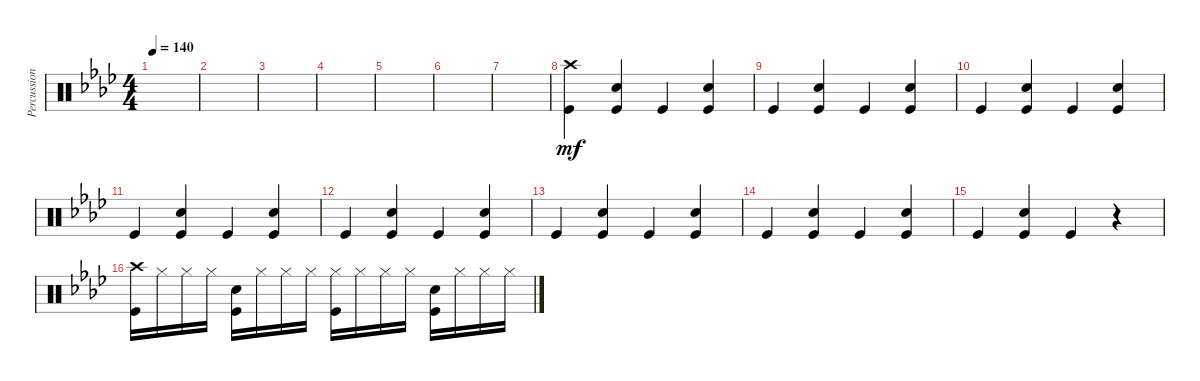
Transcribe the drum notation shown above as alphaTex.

\track ("Percussion" "Percussion") {instrument percussion}
\staff {score}
\articulation defaults
\ts (4 4)
\tempo 140
\clef neutral
\ks ab
|
|
|
|
|
|
|
("Kick (hit)" "Crash high (hit)").4{dy mf} ("Snare (hit) 2" "Kick (hit)").4 "Kick (hit)".4 ("Snare (hit) 2" "Kick (hit)").4 |
"Kick (hit)".4 ("Snare (hit) 2" "Kick (hit)").4 "Kick (hit)".4 ("Snare (hit) 2" "Kick (hit)").4 |
"Kick (hit)".4 ("Snare (hit) 2" "Kick (hit)").4 "Kick (hit)".4 ("Snare (hit) 2" "Kick (hit)").4 |
"Kick (hit)".4 ("Snare (hit) 2" "Kick (hit)").4 "Kick (hit)".4 ("Snare (hit) 2" "Kick (hit)").4 |
"Kick (hit)".4 ("Snare (hit) 2" "Kick (hit)").4 "Kick (hit)".4 ("Snare (hit) 2" "Kick (hit)").4 |
"Kick (hit)".4 ("Snare (hit) 2" "Kick (hit)").4 "Kick (hit)".4 ("Snare (hit) 2" "Kick (hit)").4 |
"Kick (hit)".4 ("Snare (hit) 2" "Kick (hit)").4 "Kick (hit)".4 ("Snare (hit) 2" "Kick (hit)").4 |
"Kick (hit)".4 ("Snare (hit) 2" "Kick (hit)").4 "Kick (hit)".4 r.4 |
("Crash high (hit)" "Kick (hit)").16 "Hi-Hat (closed)".16 "Hi-Hat (closed)".16 "Hi-Hat (closed)".16 ("Snare (hit) 2" "Kick (hit)").16 "Hi-Hat (closed)".16 "Hi-Hat (closed)".16 "Hi-Hat (closed)".16 ("Hi-Hat (closed)" "Kick (hit)").16 "Hi-Hat (closed)".16 "Hi-Hat (closed)".16 "Hi-Hat (closed)".16 ("Snare (hit) 2" "Kick (hit)").16 "Hi-Hat (closed)".16 "Hi-Hat (closed)".16 "Hi-Hat (closed)".16
